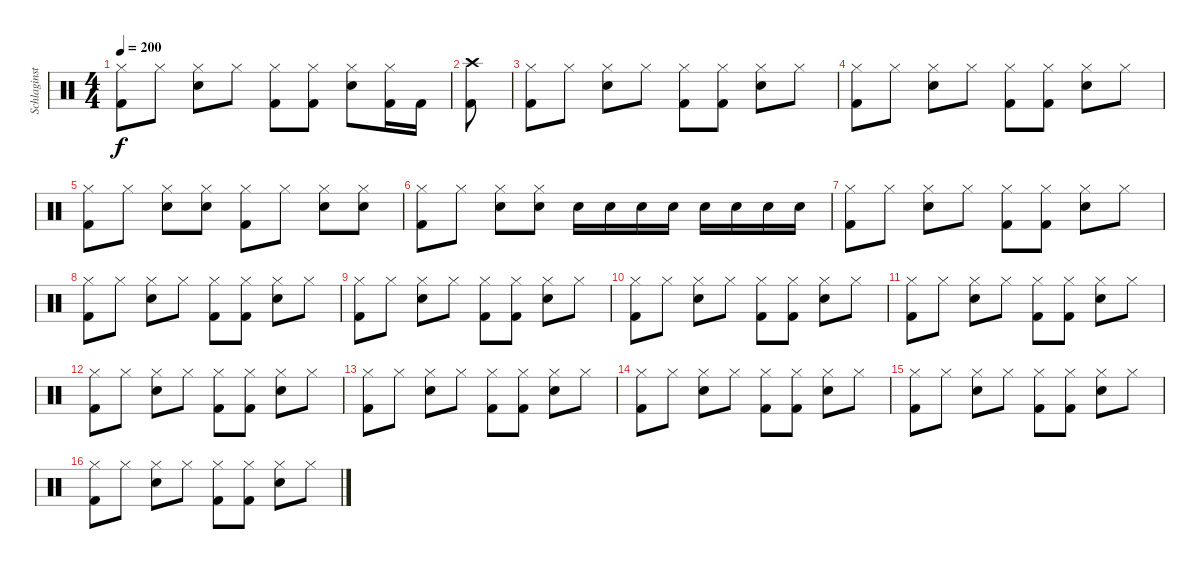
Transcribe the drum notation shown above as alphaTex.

\track ("Schlaginstrumente - Auswahl" "Schlaginst") {instrument percussion}
\staff {score}
\articulation defaults
\ts (4 4)
\tempo 200
\clef neutral
\ks c
("Hi-Hat (closed)" "Kick (hit) 2").8{dy f} "Hi-Hat (closed)".8 ("Hi-Hat (closed)" "Electric Snare (hit)").8 "Hi-Hat (closed)".8 ("Hi-Hat (closed)" "Kick (hit) 2").8 ("Hi-Hat (closed)" "Kick (hit) 2").8 ("Hi-Hat (closed)" "Electric Snare (hit)").8 ("Hi-Hat (closed)" "Kick (hit) 2").16 "Kick (hit) 2".16 |
("Kick (hit) 2" "Crash high (hit)").8 |
("Hi-Hat (closed)" "Kick (hit) 2").8 "Hi-Hat (closed)".8 ("Hi-Hat (closed)" "Electric Snare (hit)").8 "Hi-Hat (closed)".8 ("Hi-Hat (closed)" "Kick (hit) 2").8 ("Hi-Hat (closed)" "Kick (hit) 2").8 ("Hi-Hat (closed)" "Electric Snare (hit)").8 "Hi-Hat (closed)".8 |
("Hi-Hat (closed)" "Kick (hit) 2").8 "Hi-Hat (closed)".8 ("Hi-Hat (closed)" "Electric Snare (hit)").8 "Hi-Hat (closed)".8 ("Hi-Hat (closed)" "Kick (hit) 2").8 ("Hi-Hat (closed)" "Kick (hit) 2").8 ("Hi-Hat (closed)" "Electric Snare (hit)").8 "Hi-Hat (closed)".8 |
("Hi-Hat (closed)" "Kick (hit) 2").8 "Hi-Hat (closed)".8 ("Hi-Hat (closed)" "Electric Snare (hit)").8 ("Hi-Hat (closed)" "Electric Snare (hit)").8 ("Hi-Hat (closed)" "Kick (hit) 2").8 "Hi-Hat (closed)".8 ("Hi-Hat (closed)" "Electric Snare (hit)").8 ("Hi-Hat (closed)" "Electric Snare (hit)").8 |
("Hi-Hat (closed)" "Kick (hit) 2").8 "Hi-Hat (closed)".8 ("Hi-Hat (closed)" "Electric Snare (hit)").8 ("Hi-Hat (closed)" "Electric Snare (hit)").8 "Electric Snare (hit)".16 "Electric Snare (hit)".16 "Electric Snare (hit)".16 "Electric Snare (hit)".16 "Electric Snare (hit)".16 "Electric Snare (hit)".16 "Electric Snare (hit)".16 "Electric Snare (hit)".16 |
("Hi-Hat (closed)" "Kick (hit) 2").8 "Hi-Hat (closed)".8 ("Hi-Hat (closed)" "Electric Snare (hit)").8 "Hi-Hat (closed)".8 ("Hi-Hat (closed)" "Kick (hit) 2").8 ("Hi-Hat (closed)" "Kick (hit) 2").8 ("Hi-Hat (closed)" "Electric Snare (hit)").8 "Hi-Hat (closed)".8 |
("Hi-Hat (closed)" "Kick (hit) 2").8 "Hi-Hat (closed)".8 ("Hi-Hat (closed)" "Electric Snare (hit)").8 "Hi-Hat (closed)".8 ("Hi-Hat (closed)" "Kick (hit) 2").8 ("Hi-Hat (closed)" "Kick (hit) 2").8 ("Hi-Hat (closed)" "Electric Snare (hit)").8 "Hi-Hat (closed)".8 |
("Hi-Hat (closed)" "Kick (hit) 2").8 "Hi-Hat (closed)".8 ("Hi-Hat (closed)" "Electric Snare (hit)").8 "Hi-Hat (closed)".8 ("Hi-Hat (closed)" "Kick (hit) 2").8 ("Hi-Hat (closed)" "Kick (hit) 2").8 ("Hi-Hat (closed)" "Electric Snare (hit)").8 "Hi-Hat (closed)".8 |
("Hi-Hat (closed)" "Kick (hit) 2").8 "Hi-Hat (closed)".8 ("Hi-Hat (closed)" "Electric Snare (hit)").8 "Hi-Hat (closed)".8 ("Hi-Hat (closed)" "Kick (hit) 2").8 ("Hi-Hat (closed)" "Kick (hit) 2").8 ("Hi-Hat (closed)" "Electric Snare (hit)").8 "Hi-Hat (closed)".8 |
("Hi-Hat (closed)" "Kick (hit) 2").8 "Hi-Hat (closed)".8 ("Hi-Hat (closed)" "Electric Snare (hit)").8 "Hi-Hat (closed)".8 ("Hi-Hat (closed)" "Kick (hit) 2").8 ("Hi-Hat (closed)" "Kick (hit) 2").8 ("Hi-Hat (closed)" "Electric Snare (hit)").8 "Hi-Hat (closed)".8 |
("Hi-Hat (closed)" "Kick (hit) 2").8 "Hi-Hat (closed)".8 ("Hi-Hat (closed)" "Electric Snare (hit)").8 "Hi-Hat (closed)".8 ("Hi-Hat (closed)" "Kick (hit) 2").8 ("Hi-Hat (closed)" "Kick (hit) 2").8 ("Hi-Hat (closed)" "Electric Snare (hit)").8 "Hi-Hat (closed)".8 |
("Hi-Hat (closed)" "Kick (hit) 2").8 "Hi-Hat (closed)".8 ("Hi-Hat (closed)" "Electric Snare (hit)").8 "Hi-Hat (closed)".8 ("Hi-Hat (closed)" "Kick (hit) 2").8 ("Hi-Hat (closed)" "Kick (hit) 2").8 ("Hi-Hat (closed)" "Electric Snare (hit)").8 "Hi-Hat (closed)".8 |
("Hi-Hat (closed)" "Kick (hit) 2").8 "Hi-Hat (closed)".8 ("Hi-Hat (closed)" "Electric Snare (hit)").8 "Hi-Hat (closed)".8 ("Hi-Hat (closed)" "Kick (hit) 2").8 ("Hi-Hat (closed)" "Kick (hit) 2").8 ("Hi-Hat (closed)" "Electric Snare (hit)").8 "Hi-Hat (closed)".8 |
("Hi-Hat (closed)" "Kick (hit) 2").8 "Hi-Hat (closed)".8 ("Hi-Hat (closed)" "Electric Snare (hit)").8 "Hi-Hat (closed)".8 ("Hi-Hat (closed)" "Kick (hit) 2").8 ("Hi-Hat (closed)" "Kick (hit) 2").8 ("Hi-Hat (closed)" "Electric Snare (hit)").8 "Hi-Hat (closed)".8 |
("Hi-Hat (closed)" "Kick (hit) 2").8 "Hi-Hat (closed)".8 ("Hi-Hat (closed)" "Electric Snare (hit)").8 "Hi-Hat (closed)".8 ("Hi-Hat (closed)" "Kick (hit) 2").8 ("Hi-Hat (closed)" "Kick (hit) 2").8 ("Hi-Hat (closed)" "Electric Snare (hit)").8 "Hi-Hat (closed)".8
